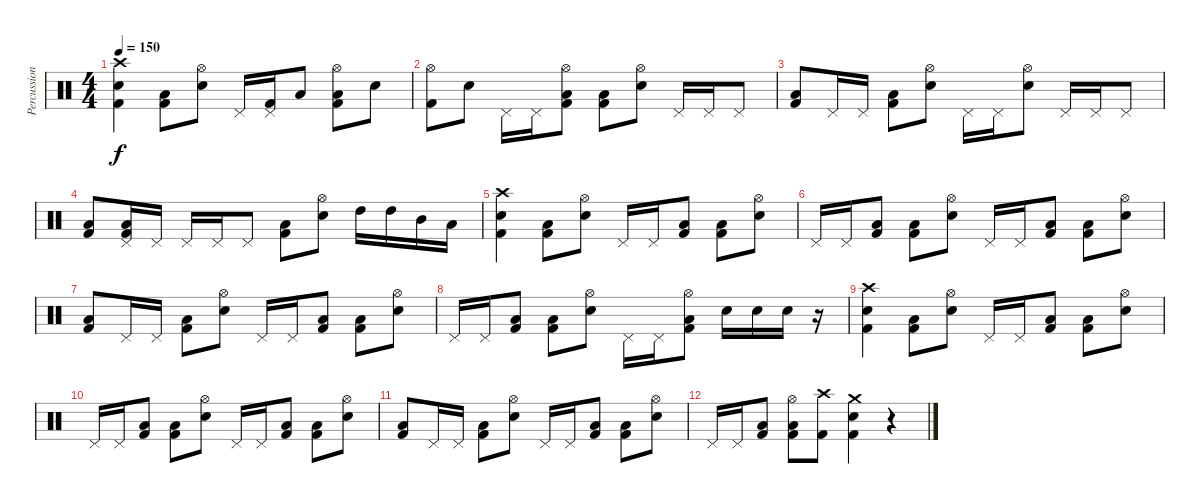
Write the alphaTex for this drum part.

\track ("Percussions" "Percussion") {instrument percussion}
\staff {score}
\articulation defaults
\ts (4 4)
\tempo 150
\clef neutral
\ks c
("Crash high (hit)" "Snare (hit) 2" "Kick (hit) 2").4{dy f} ("Low Floor Tom (hit)" "Kick (hit) 2").8 ("Hi-Hat (open)" "Snare (hit) 2").8 "Pedal Hi-Hat (hit)".16 ("Pedal Hi-Hat (hit)" "Kick (hit) 2").16 "Low Floor Tom (hit)".8 ("Hi-Hat (open)" "Low Floor Tom (hit)" "Kick (hit) 2").8 "Snare (hit) 2".8 |
("Hi-Hat (open)" "Kick (hit) 2").8 "Snare (hit) 2".8 "Pedal Hi-Hat (hit)".16 "Pedal Hi-Hat (hit)".16 ("Hi-Hat (open)" "Low Floor Tom (hit)" "Kick (hit) 2").8 ("Low Floor Tom (hit)" "Kick (hit) 2").8 ("Hi-Hat (open)" "Snare (hit) 2").8 "Pedal Hi-Hat (hit)".16 "Pedal Hi-Hat (hit)".16 "Pedal Hi-Hat (hit)".8 |
("Low Floor Tom (hit)" "Kick (hit) 2").8 "Pedal Hi-Hat (hit)".16 "Pedal Hi-Hat (hit)".16 ("Low Floor Tom (hit)" "Kick (hit) 2").8 ("Hi-Hat (open)" "Snare (hit) 2").8 "Pedal Hi-Hat (hit)".16 "Pedal Hi-Hat (hit)".16 ("Hi-Hat (open)" "Snare (hit) 2").8 "Pedal Hi-Hat (hit)".16 "Pedal Hi-Hat (hit)".16 "Pedal Hi-Hat (hit)".8 |
("Low Floor Tom (hit)" "Kick (hit) 2").8 ("Pedal Hi-Hat (hit)" "Low Floor Tom (hit)" "Kick (hit) 2").16 "Pedal Hi-Hat (hit)".16 "Pedal Hi-Hat (hit)".16 "Pedal Hi-Hat (hit)".16 "Pedal Hi-Hat (hit)".8 ("Low Floor Tom (hit)" "Kick (hit) 2").8 ("Hi-Hat (open)" "Snare (hit) 2").8 "High Tom (hit)".16 "High Tom (hit)".16 "Mid Tom (hit)".16 "Low Tom (hit)".16 |
("Crash high (hit)" "Snare (hit) 2" "Kick (hit) 2").4 ("Low Floor Tom (hit)" "Kick (hit) 2").8 ("Hi-Hat (open)" "Snare (hit) 2").8 "Pedal Hi-Hat (hit)".16 "Pedal Hi-Hat (hit)".16 ("Low Floor Tom (hit)" "Kick (hit) 2").8 ("Low Floor Tom (hit)" "Kick (hit) 2").8 ("Hi-Hat (open)" "Snare (hit) 2").8 |
"Pedal Hi-Hat (hit)".16 "Pedal Hi-Hat (hit)".16 ("Low Floor Tom (hit)" "Kick (hit) 2").8 ("Low Floor Tom (hit)" "Kick (hit) 2").8 ("Hi-Hat (open)" "Snare (hit) 2").8 "Pedal Hi-Hat (hit)".16 "Pedal Hi-Hat (hit)".16 ("Low Floor Tom (hit)" "Kick (hit) 2").8 ("Low Floor Tom (hit)" "Kick (hit) 2").8 ("Hi-Hat (open)" "Snare (hit) 2").8 |
("Low Floor Tom (hit)" "Kick (hit) 2").8 "Pedal Hi-Hat (hit)".16 "Pedal Hi-Hat (hit)".16 ("Low Floor Tom (hit)" "Kick (hit) 2").8 ("Hi-Hat (open)" "Snare (hit) 2").8 "Pedal Hi-Hat (hit)".16 "Pedal Hi-Hat (hit)".16 ("Low Floor Tom (hit)" "Kick (hit) 2").8 ("Low Floor Tom (hit)" "Kick (hit) 2").8 ("Hi-Hat (open)" "Snare (hit) 2").8 |
"Pedal Hi-Hat (hit)".16 "Pedal Hi-Hat (hit)".16 ("Low Floor Tom (hit)" "Kick (hit) 2").8 ("Low Floor Tom (hit)" "Kick (hit) 2").8 ("Hi-Hat (open)" "Snare (hit) 2").8 "Pedal Hi-Hat (hit)".16 "Pedal Hi-Hat (hit)".16 ("Hi-Hat (open)" "Low Floor Tom (hit)" "Kick (hit) 2").8 "Snare (hit) 2".16 "Snare (hit) 2".16 "Snare (hit) 2".16 r.16 |
("Crash high (hit)" "Snare (hit) 2" "Kick (hit) 2").4 ("Low Floor Tom (hit)" "Kick (hit) 2").8 ("Hi-Hat (open)" "Snare (hit) 2").8 "Pedal Hi-Hat (hit)".16 "Pedal Hi-Hat (hit)".16 ("Low Floor Tom (hit)" "Kick (hit) 2").8 ("Low Floor Tom (hit)" "Kick (hit) 2").8 ("Hi-Hat (open)" "Snare (hit) 2").8 |
"Pedal Hi-Hat (hit)".16 "Pedal Hi-Hat (hit)".16 ("Low Floor Tom (hit)" "Kick (hit) 2").8 ("Low Floor Tom (hit)" "Kick (hit) 2").8 ("Hi-Hat (open)" "Snare (hit) 2").8 "Pedal Hi-Hat (hit)".16 "Pedal Hi-Hat (hit)".16 ("Low Floor Tom (hit)" "Kick (hit) 2").8 ("Low Floor Tom (hit)" "Kick (hit) 2").8 ("Hi-Hat (open)" "Snare (hit) 2").8 |
("Low Floor Tom (hit)" "Kick (hit) 2").8 "Pedal Hi-Hat (hit)".16 "Pedal Hi-Hat (hit)".16 ("Low Floor Tom (hit)" "Kick (hit) 2").8 ("Hi-Hat (open)" "Snare (hit) 2").8 "Pedal Hi-Hat (hit)".16 "Pedal Hi-Hat (hit)".16 ("Low Floor Tom (hit)" "Kick (hit) 2").8 ("Low Floor Tom (hit)" "Kick (hit) 2").8 ("Hi-Hat (open)" "Snare (hit) 2").8 |
"Pedal Hi-Hat (hit)".16 "Pedal Hi-Hat (hit)".16 ("Low Floor Tom (hit)" "Kick (hit) 2").8 ("Hi-Hat (open)" "Low Floor Tom (hit)" "Kick (hit) 2").8 ("Crash high (hit)" "Kick (hit) 2").8 ("Crash medium (hit)" "Snare (hit) 2" "Kick (hit) 2").4 r.4
